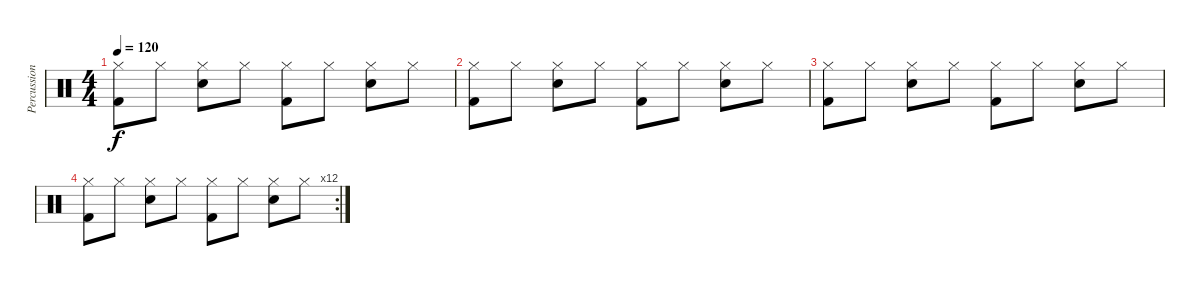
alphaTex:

\track ("Percussions" "Percussion") {instrument percussion}
\staff {score}
\articulation defaults
\ts (4 4)
\tempo 120
\clef neutral
\ks c
("Hi-Hat (closed)" "Kick (hit) 2").8{dy f} "Hi-Hat (closed)".8 ("Hi-Hat (closed)" "Snare (hit) 2").8 "Hi-Hat (closed)".8 ("Hi-Hat (closed)" "Kick (hit) 2").8 "Hi-Hat (closed)".8 ("Hi-Hat (closed)" "Snare (hit) 2").8 "Hi-Hat (closed)".8 |
("Hi-Hat (closed)" "Kick (hit) 2").8 "Hi-Hat (closed)".8 ("Hi-Hat (closed)" "Snare (hit) 2").8 "Hi-Hat (closed)".8 ("Hi-Hat (closed)" "Kick (hit) 2").8 "Hi-Hat (closed)".8 ("Hi-Hat (closed)" "Snare (hit) 2").8 "Hi-Hat (closed)".8 |
("Hi-Hat (closed)" "Kick (hit) 2").8 "Hi-Hat (closed)".8 ("Hi-Hat (closed)" "Snare (hit) 2").8 "Hi-Hat (closed)".8 ("Hi-Hat (closed)" "Kick (hit) 2").8 "Hi-Hat (closed)".8 ("Hi-Hat (closed)" "Snare (hit) 2").8 "Hi-Hat (closed)".8 |
\rc 12
("Hi-Hat (closed)" "Kick (hit) 2").8 "Hi-Hat (closed)".8 ("Hi-Hat (closed)" "Snare (hit) 2").8 "Hi-Hat (closed)".8 ("Hi-Hat (closed)" "Kick (hit) 2").8 "Hi-Hat (closed)".8 ("Hi-Hat (closed)" "Snare (hit) 2").8 "Hi-Hat (closed)".8
